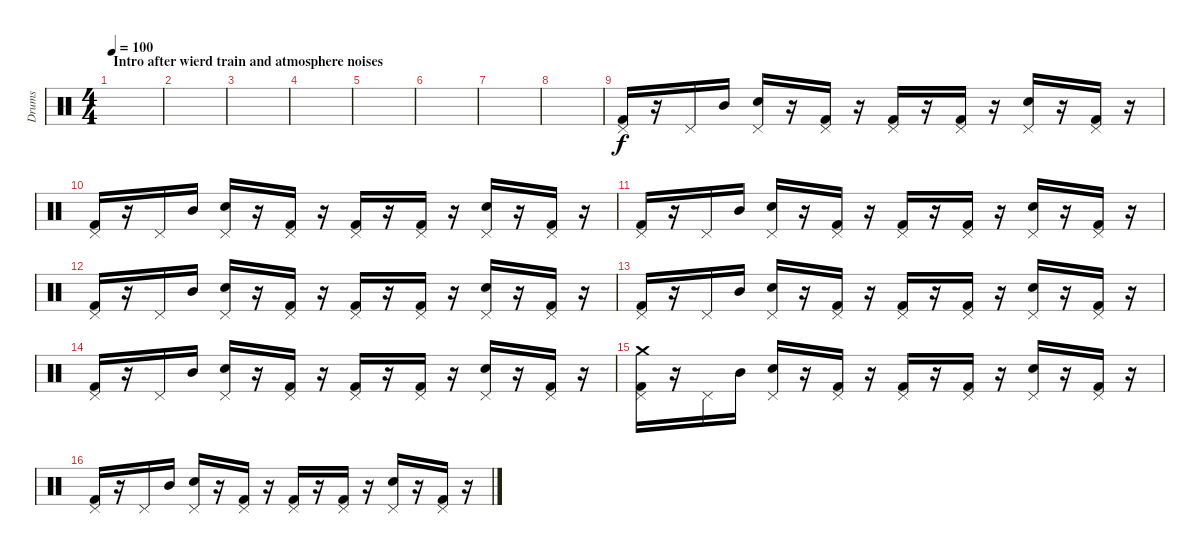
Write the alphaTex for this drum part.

\track ("Drums" "Drums") {instrument percussion}
\staff {score}
\articulation defaults
\ts (4 4)
\section ("" "Intro after wierd train and atmosphere noises ")
\tempo 100
\clef neutral
\ks c
|
|
|
|
|
|
|
|
("Kick (hit) 2" "Pedal Hi-Hat (hit)").16{volume 2} r.16 "Pedal Hi-Hat (hit)".16 "Mid Tom (hit)".16 ("Pedal Hi-Hat (hit)" "Electric Snare (hit)").16 r.16 ("Kick (hit) 2" "Pedal Hi-Hat (hit)").16 r.16 ("Kick (hit) 2" "Pedal Hi-Hat (hit)").16 r.16 ("Kick (hit) 2" "Pedal Hi-Hat (hit)").16 r.16 ("Pedal Hi-Hat (hit)" "Electric Snare (hit)").16 r.16 ("Kick (hit) 2" "Pedal Hi-Hat (hit)").16 r.16 |
("Kick (hit) 2" "Pedal Hi-Hat (hit)").16{volume 4} r.16 "Pedal Hi-Hat (hit)".16 "Mid Tom (hit)".16 ("Pedal Hi-Hat (hit)" "Electric Snare (hit)").16 r.16 ("Kick (hit) 2" "Pedal Hi-Hat (hit)").16 r.16 ("Kick (hit) 2" "Pedal Hi-Hat (hit)").16 r.16 ("Kick (hit) 2" "Pedal Hi-Hat (hit)").16 r.16 ("Pedal Hi-Hat (hit)" "Electric Snare (hit)").16 r.16 ("Kick (hit) 2" "Pedal Hi-Hat (hit)").16 r.16 |
("Kick (hit) 2" "Pedal Hi-Hat (hit)").16{volume 6} r.16 "Pedal Hi-Hat (hit)".16 "Mid Tom (hit)".16 ("Pedal Hi-Hat (hit)" "Electric Snare (hit)").16 r.16 ("Kick (hit) 2" "Pedal Hi-Hat (hit)").16 r.16 ("Kick (hit) 2" "Pedal Hi-Hat (hit)").16 r.16 ("Kick (hit) 2" "Pedal Hi-Hat (hit)").16 r.16 ("Pedal Hi-Hat (hit)" "Electric Snare (hit)").16 r.16 ("Kick (hit) 2" "Pedal Hi-Hat (hit)").16 r.16 |
("Kick (hit) 2" "Pedal Hi-Hat (hit)").16 r.16 "Pedal Hi-Hat (hit)".16 "Mid Tom (hit)".16 ("Pedal Hi-Hat (hit)" "Electric Snare (hit)").16 r.16 ("Kick (hit) 2" "Pedal Hi-Hat (hit)").16 r.16 ("Kick (hit) 2" "Pedal Hi-Hat (hit)").16 r.16 ("Kick (hit) 2" "Pedal Hi-Hat (hit)").16 r.16 ("Pedal Hi-Hat (hit)" "Electric Snare (hit)").16 r.16 ("Kick (hit) 2" "Pedal Hi-Hat (hit)").16 r.16 |
("Kick (hit) 2" "Pedal Hi-Hat (hit)").16 r.16 "Pedal Hi-Hat (hit)".16 "Mid Tom (hit)".16 ("Pedal Hi-Hat (hit)" "Electric Snare (hit)").16 r.16 ("Kick (hit) 2" "Pedal Hi-Hat (hit)").16 r.16 ("Kick (hit) 2" "Pedal Hi-Hat (hit)").16 r.16 ("Kick (hit) 2" "Pedal Hi-Hat (hit)").16 r.16 ("Pedal Hi-Hat (hit)" "Electric Snare (hit)").16 r.16 ("Kick (hit) 2" "Pedal Hi-Hat (hit)").16 r.16 |
("Kick (hit) 2" "Pedal Hi-Hat (hit)").16 r.16 "Pedal Hi-Hat (hit)".16 "Mid Tom (hit)".16 ("Pedal Hi-Hat (hit)" "Electric Snare (hit)").16 r.16 ("Kick (hit) 2" "Pedal Hi-Hat (hit)").16 r.16 ("Kick (hit) 2" "Pedal Hi-Hat (hit)").16 r.16 ("Kick (hit) 2" "Pedal Hi-Hat (hit)").16 r.16 ("Pedal Hi-Hat (hit)" "Electric Snare (hit)").16 r.16 ("Kick (hit) 2" "Pedal Hi-Hat (hit)").16 r.16 |
("Kick (hit) 2" "Pedal Hi-Hat (hit)" "Crash medium (hit)").16 r.16 "Pedal Hi-Hat (hit)".16 "Mid Tom (hit)".16 ("Pedal Hi-Hat (hit)" "Electric Snare (hit)").16 r.16 ("Kick (hit) 2" "Pedal Hi-Hat (hit)").16 r.16 ("Kick (hit) 2" "Pedal Hi-Hat (hit)").16 r.16 ("Kick (hit) 2" "Pedal Hi-Hat (hit)").16 r.16 ("Pedal Hi-Hat (hit)" "Electric Snare (hit)").16 r.16 ("Kick (hit) 2" "Pedal Hi-Hat (hit)").16 r.16 |
("Kick (hit) 2" "Pedal Hi-Hat (hit)").16 r.16 "Pedal Hi-Hat (hit)".16 "Mid Tom (hit)".16 ("Pedal Hi-Hat (hit)" "Electric Snare (hit)").16 r.16 ("Kick (hit) 2" "Pedal Hi-Hat (hit)").16 r.16 ("Kick (hit) 2" "Pedal Hi-Hat (hit)").16 r.16 ("Kick (hit) 2" "Pedal Hi-Hat (hit)").16 r.16 ("Pedal Hi-Hat (hit)" "Electric Snare (hit)").16 r.16 ("Kick (hit) 2" "Pedal Hi-Hat (hit)").16 r.16
